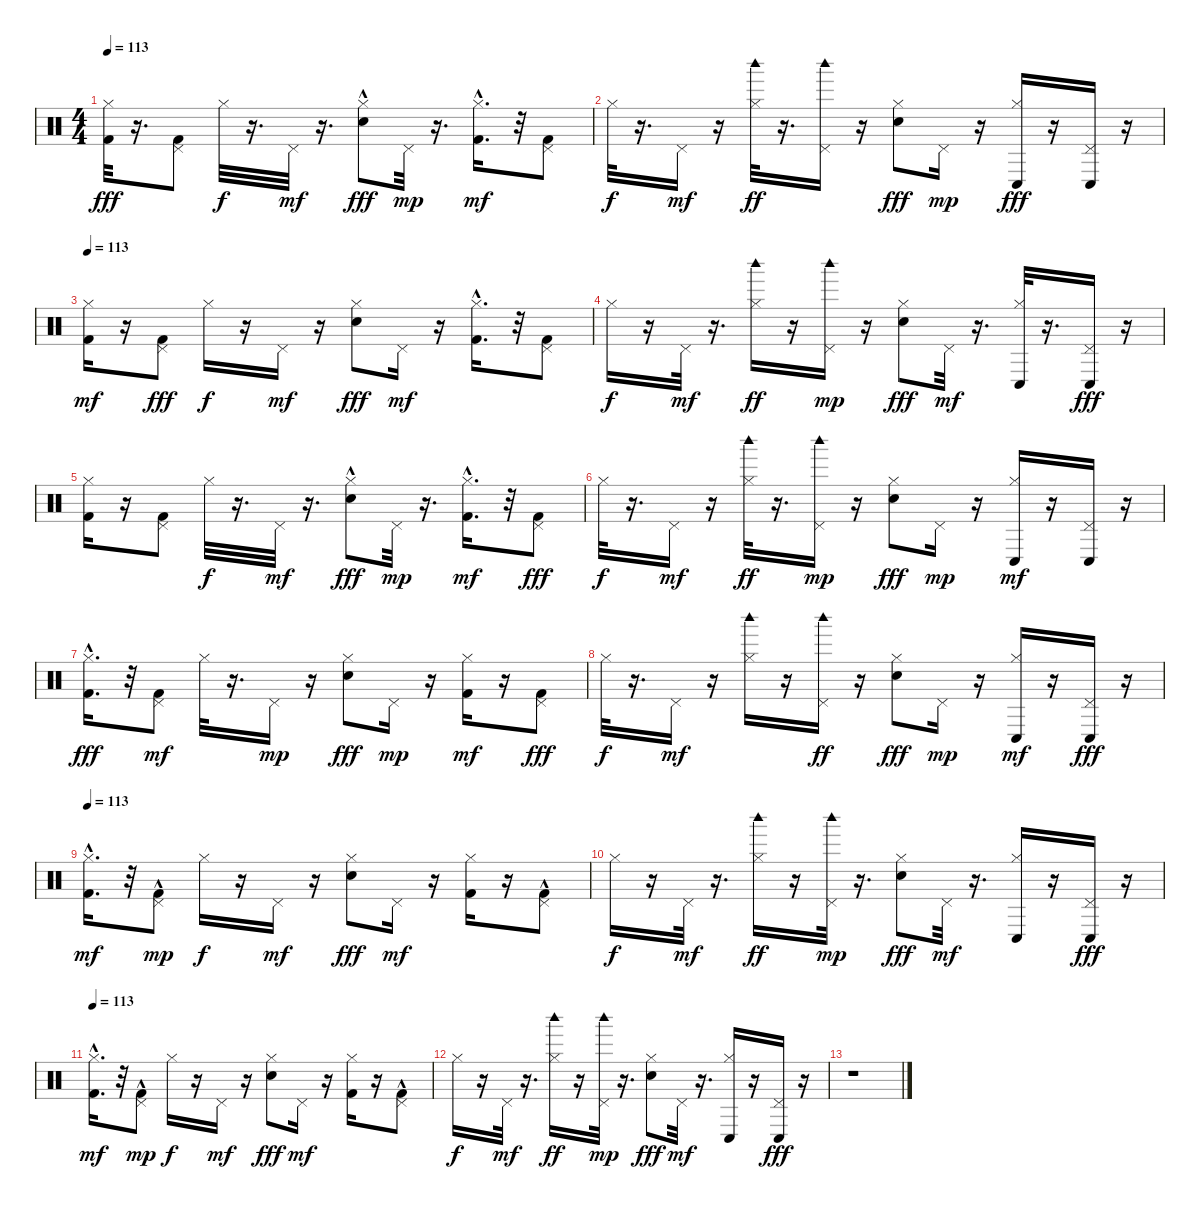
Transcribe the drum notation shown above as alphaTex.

\track "" {instrument percussion}
\staff {score}
\articulation defaults
\ts (4 4)
\tempo 113
\clef neutral
\ks c
("Hi-Hat (closed)" "Kick (hit) 2").32{dy fff} r.16{d} ("Pedal Hi-Hat (hit)" "Kick (hit) 2").8 "Hi-Hat (closed)".32{dy f} r.16{d} "Pedal Hi-Hat (hit)".32{dy mf} r.16{d} ("Hi-Hat (closed)" "Snare (hit) 2"{hac}).8{dy fff} "Pedal Hi-Hat (hit)".32{dy mp} r.16{d} ("Kick (hit) 2"{hac} "Hi-Hat (closed)").16{d dy mf} r.32 ("Kick (hit) 2" "Pedal Hi-Hat (hit)").8 |
"Hi-Hat (closed)".32{dy f} r.16{d} "Pedal Hi-Hat (hit)".16{dy mf} r.16 ("Hi-Hat (closed)" "Woodblock high (hit)").32{dy ff} r.16{d} ("Pedal Hi-Hat (hit)" "Woodblock high (hit)").16 r.16 ("Hi-Hat (closed)" "Snare (hit) 2").8{dy fff} "Pedal Hi-Hat (hit)".16{dy mp} r.16 ("Hi-Hat (closed)" "Conga low (hit)").16{dy fff} r.16 ("Pedal Hi-Hat (hit)" "Conga low (hit)").16 r.16 |
\tempo 113
("Kick (hit) 2" "Hi-Hat (closed)").16{dy mf} r.16 ("Pedal Hi-Hat (hit)" "Kick (hit) 2").8{dy fff} "Hi-Hat (closed)".16{dy f} r.16 "Pedal Hi-Hat (hit)".16{dy mf} r.16 ("Hi-Hat (closed)" "Snare (hit) 2").8{dy fff} "Pedal Hi-Hat (hit)".16{dy mf} r.16 ("Kick (hit) 2"{hac} "Hi-Hat (closed)").16{d} r.32 ("Kick (hit) 2" "Pedal Hi-Hat (hit)").8 |
"Hi-Hat (closed)".16{dy f} r.16 "Pedal Hi-Hat (hit)".32{dy mf} r.16{d} ("Woodblock high (hit)" "Hi-Hat (closed)").16{dy ff} r.16 ("Woodblock high (hit)" "Pedal Hi-Hat (hit)").16{dy mp} r.16 ("Hi-Hat (closed)" "Snare (hit) 2").8{dy fff} "Pedal Hi-Hat (hit)".32{dy mf} r.16{d} ("Conga low (hit)" "Hi-Hat (closed)").32 r.16{d} ("Pedal Hi-Hat (hit)" "Conga low (hit)").16{dy fff} r.16 |
("Hi-Hat (closed)" "Kick (hit) 2").16 r.16 ("Pedal Hi-Hat (hit)" "Kick (hit) 2").8 "Hi-Hat (closed)".32{dy f} r.16{d} "Pedal Hi-Hat (hit)".32{dy mf} r.16{d} ("Hi-Hat (closed)" "Snare (hit) 2"{hac}).8{dy fff} "Pedal Hi-Hat (hit)".32{dy mp} r.16{d} ("Kick (hit) 2"{hac} "Hi-Hat (closed)").16{d dy mf} r.32 ("Pedal Hi-Hat (hit)" "Kick (hit) 2").8{dy fff} |
"Hi-Hat (closed)".32{dy f} r.16{d} "Pedal Hi-Hat (hit)".16{dy mf} r.16 ("Hi-Hat (closed)" "Woodblock high (hit)").32{dy ff} r.16{d} ("Pedal Hi-Hat (hit)" "Woodblock high (hit)").16{dy mp} r.16 ("Hi-Hat (closed)" "Snare (hit) 2").8{dy fff} "Pedal Hi-Hat (hit)".16{dy mp} r.16 ("Conga low (hit)" "Hi-Hat (closed)").16{dy mf} r.16 ("Conga low (hit)" "Pedal Hi-Hat (hit)").16 r.16 |
("Kick (hit) 2"{hac} "Hi-Hat (closed)").16{d dy fff} r.32 ("Kick (hit) 2" "Pedal Hi-Hat (hit)").8{dy mf} "Hi-Hat (closed)".32 r.16{d} "Pedal Hi-Hat (hit)".16{dy mp} r.16 ("Hi-Hat (closed)" "Snare (hit) 2").8{dy fff} "Pedal Hi-Hat (hit)".16{dy mp} r.16 ("Kick (hit) 2" "Hi-Hat (closed)").16{dy mf} r.16 ("Pedal Hi-Hat (hit)" "Kick (hit) 2").8{dy fff} |
"Hi-Hat (closed)".32{dy f} r.16{d} "Pedal Hi-Hat (hit)".16{dy mf} r.16 ("Woodblock high (hit)" "Hi-Hat (closed)").16 r.16 ("Pedal Hi-Hat (hit)" "Woodblock high (hit)").16{dy ff} r.16 ("Hi-Hat (closed)" "Snare (hit) 2").8{dy fff} "Pedal Hi-Hat (hit)".16{dy mp} r.16 ("Conga low (hit)" "Hi-Hat (closed)").16{dy mf} r.16 ("Pedal Hi-Hat (hit)" "Conga low (hit)").16{dy fff} r.16 |
\tempo 113
("Kick (hit) 2"{hac} "Hi-Hat (closed)").16{d dy mf} r.32 ("Kick (hit) 2"{hac} "Pedal Hi-Hat (hit)").8{dy mp} "Hi-Hat (closed)".16{dy f} r.16 "Pedal Hi-Hat (hit)".16{dy mf} r.16 ("Hi-Hat (closed)" "Snare (hit) 2").8{dy fff} "Pedal Hi-Hat (hit)".16{dy mf} r.16 ("Kick (hit) 2" "Hi-Hat (closed)").16 r.16 ("Kick (hit) 2"{hac} "Pedal Hi-Hat (hit)").8 |
"Hi-Hat (closed)".16{dy f} r.16 "Pedal Hi-Hat (hit)".32{dy mf} r.16{d} ("Hi-Hat (closed)" "Woodblock high (hit)").16{dy ff} r.16 ("Pedal Hi-Hat (hit)" "Woodblock high (hit)").32{dy mp} r.16{d} ("Hi-Hat (closed)" "Snare (hit) 2").8{dy fff} "Pedal Hi-Hat (hit)".32{dy mf} r.16{d} ("Conga low (hit)" "Hi-Hat (closed)").16 r.16 ("Pedal Hi-Hat (hit)" "Conga low (hit)").16{dy fff} r.16 |
\tempo 113
("Kick (hit) 2"{hac} "Hi-Hat (closed)").16{d dy mf} r.32 ("Kick (hit) 2"{hac} "Pedal Hi-Hat (hit)").8{dy mp} "Hi-Hat (closed)".16{dy f} r.16 "Pedal Hi-Hat (hit)".16{dy mf} r.16 ("Hi-Hat (closed)" "Snare (hit) 2").8{dy fff} "Pedal Hi-Hat (hit)".16{dy mf} r.16 ("Kick (hit) 2" "Hi-Hat (closed)").16 r.16 ("Kick (hit) 2"{hac} "Pedal Hi-Hat (hit)").8 |
"Hi-Hat (closed)".16{dy f} r.16 "Pedal Hi-Hat (hit)".32{dy mf} r.16{d} ("Hi-Hat (closed)" "Woodblock high (hit)").16{dy ff} r.16 ("Pedal Hi-Hat (hit)" "Woodblock high (hit)").32{dy mp} r.16{d} ("Hi-Hat (closed)" "Snare (hit) 2").8{dy fff} "Pedal Hi-Hat (hit)".32{dy mf} r.16{d} ("Conga low (hit)" "Hi-Hat (closed)").16 r.16 ("Pedal Hi-Hat (hit)" "Conga low (hit)").16{dy fff} r.16 |
r.1
